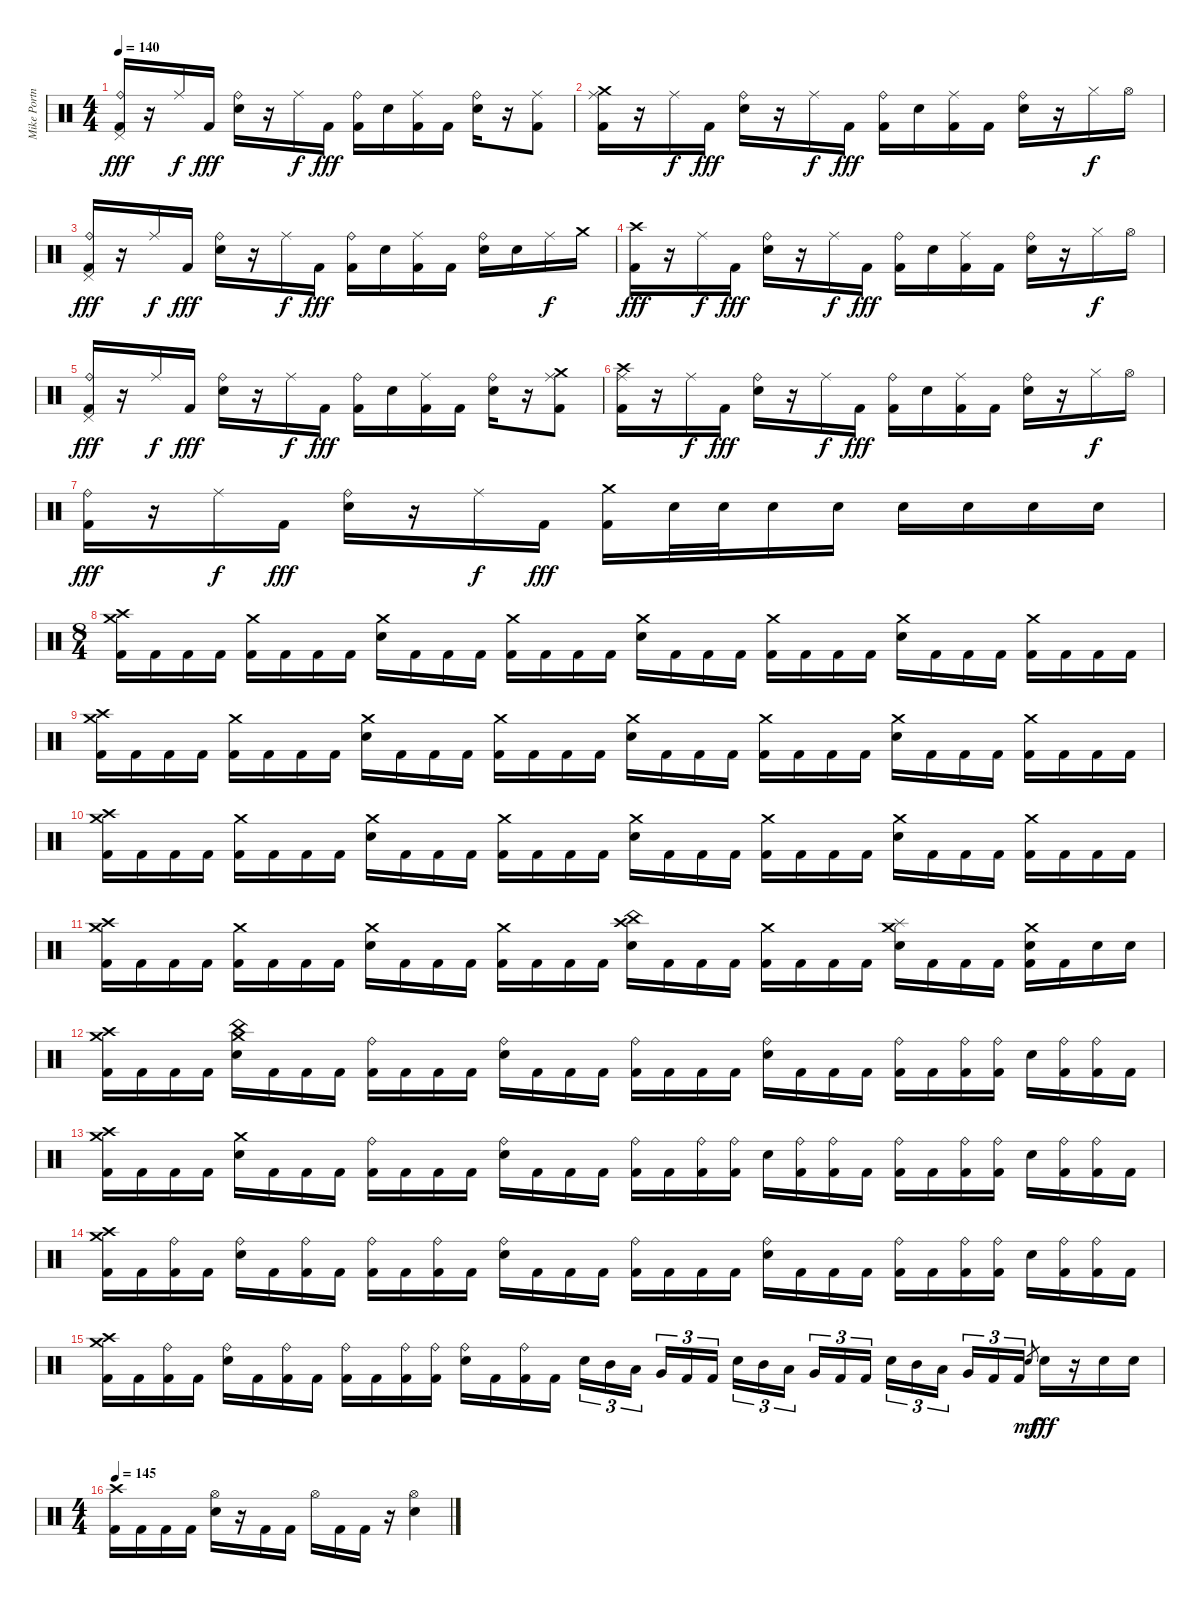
\track ("Mike Portnoy" "Mike Portn") {instrument percussion}
\staff {score}
\articulation defaults
\ts (4 4)
\tempo 140
\clef neutral
\ks c
("Pedal Hi-Hat (hit)" "Ride (bell)" "Kick (hit) 2").16{dy fff} r.16 "Ride (middle)".16{dy f} "Kick (hit) 2".16{dy fff} ("Ride (bell)" "Electric Snare (hit)").16 r.16 "Ride (middle)".16{dy f} "Kick (hit) 2".16{dy fff} ("Ride (bell)" "Kick (hit) 2").16 "Electric Snare (hit)".16 ("Ride (middle)" "Kick (hit) 2").16 "Kick (hit) 2".16 ("Ride (bell)" "Electric Snare (hit)").16 r.16 ("Ride (middle)" "Kick (hit) 2").8 |
("Crash medium (hit)" "Ride (middle)" "Kick (hit) 2").16 r.16 "Ride (middle)".16{dy f} "Kick (hit) 2".16{dy fff} ("Ride (bell)" "Electric Snare (hit)").16 r.16 "Ride (middle)".16{dy f} "Kick (hit) 2".16{dy fff} ("Ride (bell)" "Kick (hit) 2").16 "Electric Snare (hit)".16 ("Ride (middle)" "Kick (hit) 2").16 "Kick (hit) 2".16 ("Ride (bell)" "Electric Snare (hit)").16 r.16 "Hi-Hat (closed)".16{dy f} "Hi-Hat (open)".16 |
("Pedal Hi-Hat (hit)" "Ride (bell)" "Kick (hit) 2").16{dy fff} r.16 "Ride (middle)".16{dy f} "Kick (hit) 2".16{dy fff} ("Ride (bell)" "Electric Snare (hit)").16 r.16 "Ride (middle)".16{dy f} "Kick (hit) 2".16{dy fff} ("Ride (bell)" "Kick (hit) 2").16 "Electric Snare (hit)".16 ("Ride (middle)" "Kick (hit) 2").16 "Kick (hit) 2".16 ("Ride (bell)" "Electric Snare (hit)").16 "Electric Snare (hit)".16 "Ride (middle)".16{dy f} "Crash medium (hit)".16 |
("Crash high (hit)" "Kick (hit) 2").16{dy fff} r.16 "Ride (middle)".16{dy f} "Kick (hit) 2".16{dy fff} ("Ride (bell)" "Electric Snare (hit)").16 r.16 "Ride (middle)".16{dy f} "Kick (hit) 2".16{dy fff} ("Ride (bell)" "Kick (hit) 2").16 "Electric Snare (hit)".16 ("Ride (middle)" "Kick (hit) 2").16 "Kick (hit) 2".16 ("Ride (bell)" "Electric Snare (hit)").16 r.16 "Hi-Hat (closed)".16{dy f} "Hi-Hat (open)".16 |
("Pedal Hi-Hat (hit)" "Ride (bell)" "Kick (hit) 2").16{dy fff} r.16 "Ride (middle)".16{dy f} "Kick (hit) 2".16{dy fff} ("Ride (bell)" "Electric Snare (hit)").16 r.16 "Ride (middle)".16{dy f} "Kick (hit) 2".16{dy fff} ("Ride (bell)" "Kick (hit) 2").16 "Electric Snare (hit)".16 ("Ride (middle)" "Kick (hit) 2").16 "Kick (hit) 2".16 ("Ride (bell)" "Electric Snare (hit)").16 r.16 ("Crash medium (hit)" "Ride (middle)" "Kick (hit) 2").8 |
("Crash high (hit)" "Ride (middle)" "Kick (hit) 2").16 r.16 "Ride (middle)".16{dy f} "Kick (hit) 2".16{dy fff} ("Ride (bell)" "Electric Snare (hit)").16 r.16 "Ride (middle)".16{dy f} "Kick (hit) 2".16{dy fff} ("Ride (bell)" "Kick (hit) 2").16 "Electric Snare (hit)".16 ("Ride (middle)" "Kick (hit) 2").16 "Kick (hit) 2".16 ("Ride (bell)" "Electric Snare (hit)").16 r.16 "Hi-Hat (closed)".16{dy f} "Hi-Hat (open)".16 |
("Ride (bell)" "Kick (hit) 2").16{dy fff} r.16 "Ride (middle)".16{dy f} "Kick (hit) 2".16{dy fff} ("Ride (bell)" "Electric Snare (hit)").16 r.16 "Ride (middle)".16{dy f} "Kick (hit) 2".16{dy fff} ("Crash medium (hit)" "Kick (hit) 2").16 "Electric Snare (hit)".32 "Electric Snare (hit)".32 "Electric Snare (hit)".16 "Electric Snare (hit)".16 "Electric Snare (hit)".16 "Electric Snare (hit)".16 "Electric Snare (hit)".16 "Electric Snare (hit)".16 |
\ts (8 4)
("Crash high (hit)" "Crash medium (hit)" "Kick (hit) 2").16 "Kick (hit) 2".16 "Kick (hit) 2".16 "Kick (hit) 2".16 ("Crash medium (hit)" "Kick (hit) 2").16 "Kick (hit) 2".16 "Kick (hit) 2".16 "Kick (hit) 2".16 ("Crash medium (hit)" "Electric Snare (hit)").16 "Kick (hit) 2".16 "Kick (hit) 2".16 "Kick (hit) 2".16 ("Crash medium (hit)" "Kick (hit) 2").16 "Kick (hit) 2".16 "Kick (hit) 2".16 "Kick (hit) 2".16 ("Crash medium (hit)" "Electric Snare (hit)").16 "Kick (hit) 2".16 "Kick (hit) 2".16 "Kick (hit) 2".16 ("Crash medium (hit)" "Kick (hit) 2").16 "Kick (hit) 2".16 "Kick (hit) 2".16 "Kick (hit) 2".16 ("Crash medium (hit)" "Electric Snare (hit)").16 "Kick (hit) 2".16 "Kick (hit) 2".16 "Kick (hit) 2".16 ("Crash medium (hit)" "Kick (hit) 2").16 "Kick (hit) 2".16 "Kick (hit) 2".16 "Kick (hit) 2".16 |
("Crash high (hit)" "Crash medium (hit)" "Kick (hit) 2").16 "Kick (hit) 2".16 "Kick (hit) 2".16 "Kick (hit) 2".16 ("Crash medium (hit)" "Kick (hit) 2").16 "Kick (hit) 2".16 "Kick (hit) 2".16 "Kick (hit) 2".16 ("Crash medium (hit)" "Electric Snare (hit)").16 "Kick (hit) 2".16 "Kick (hit) 2".16 "Kick (hit) 2".16 ("Crash medium (hit)" "Kick (hit) 2").16 "Kick (hit) 2".16 "Kick (hit) 2".16 "Kick (hit) 2".16 ("Crash medium (hit)" "Electric Snare (hit)").16 "Kick (hit) 2".16 "Kick (hit) 2".16 "Kick (hit) 2".16 ("Crash medium (hit)" "Kick (hit) 2").16 "Kick (hit) 2".16 "Kick (hit) 2".16 "Kick (hit) 2".16 ("Crash medium (hit)" "Electric Snare (hit)").16 "Kick (hit) 2".16 "Kick (hit) 2".16 "Kick (hit) 2".16 ("Crash medium (hit)" "Kick (hit) 2").16 "Kick (hit) 2".16 "Kick (hit) 2".16 "Kick (hit) 2".16 |
("Crash high (hit)" "Crash medium (hit)" "Kick (hit) 2").16 "Kick (hit) 2".16 "Kick (hit) 2".16 "Kick (hit) 2".16 ("Crash medium (hit)" "Kick (hit) 2").16 "Kick (hit) 2".16 "Kick (hit) 2".16 "Kick (hit) 2".16 ("Crash medium (hit)" "Electric Snare (hit)").16 "Kick (hit) 2".16 "Kick (hit) 2".16 "Kick (hit) 2".16 ("Crash medium (hit)" "Kick (hit) 2").16 "Kick (hit) 2".16 "Kick (hit) 2".16 "Kick (hit) 2".16 ("Crash medium (hit)" "Electric Snare (hit)").16 "Kick (hit) 2".16 "Kick (hit) 2".16 "Kick (hit) 2".16 ("Crash medium (hit)" "Kick (hit) 2").16 "Kick (hit) 2".16 "Kick (hit) 2".16 "Kick (hit) 2".16 ("Crash medium (hit)" "Electric Snare (hit)").16 "Kick (hit) 2".16 "Kick (hit) 2".16 "Kick (hit) 2".16 ("Crash medium (hit)" "Kick (hit) 2").16 "Kick (hit) 2".16 "Kick (hit) 2".16 "Kick (hit) 2".16 |
("Crash high (hit)" "Crash medium (hit)" "Kick (hit) 2").16 "Kick (hit) 2".16 "Kick (hit) 2".16 "Kick (hit) 2".16 ("Crash medium (hit)" "Kick (hit) 2").16 "Kick (hit) 2".16 "Kick (hit) 2".16 "Kick (hit) 2".16 ("Crash medium (hit)" "Electric Snare (hit)").16 "Kick (hit) 2".16 "Kick (hit) 2".16 "Kick (hit) 2".16 ("Crash medium (hit)" "Kick (hit) 2").16 "Kick (hit) 2".16 "Kick (hit) 2".16 "Kick (hit) 2".16 ("Crash high (hit)" "China (hit)" "Electric Snare (hit)").16 "Kick (hit) 2".16 "Kick (hit) 2".16 "Kick (hit) 2".16 ("Crash medium (hit)" "Kick (hit) 2").16 "Kick (hit) 2".16 "Kick (hit) 2".16 "Kick (hit) 2".16 ("Crash medium (hit)" "Splash (hit)" "Electric Snare (hit)").16 "Kick (hit) 2".16 "Kick (hit) 2".16 "Kick (hit) 2".16 ("Crash medium (hit)" "Electric Snare (hit)" "Kick (hit) 2").16 "Kick (hit) 2".16 "Electric Snare (hit)".16 "Electric Snare (hit)".16 |
("Crash high (hit)" "Crash medium (hit)" "Kick (hit) 2").16 "Kick (hit) 2".16 "Kick (hit) 2".16 "Kick (hit) 2".16 ("Crash medium (hit)" "China (hit)" "Electric Snare (hit)").16 "Kick (hit) 2".16 "Kick (hit) 2".16 "Kick (hit) 2".16 ("Ride (bell)" "Kick (hit) 2").16 "Kick (hit) 2".16 "Kick (hit) 2".16 "Kick (hit) 2".16 ("Ride (bell)" "Electric Snare (hit)").16 "Kick (hit) 2".16 "Kick (hit) 2".16 "Kick (hit) 2".16 ("Ride (bell)" "Kick (hit) 2").16 "Kick (hit) 2".16 "Kick (hit) 2".16 "Kick (hit) 2".16 ("Ride (bell)" "Electric Snare (hit)").16 "Kick (hit) 2".16 "Kick (hit) 2".16 "Kick (hit) 2".16 ("Ride (bell)" "Kick (hit) 2").16 "Kick (hit) 2".16 ("Ride (bell)" "Kick (hit) 2").16 ("Ride (bell)" "Kick (hit) 2").16 "Electric Snare (hit)".16 ("Ride (bell)" "Kick (hit) 2").16 ("Ride (bell)" "Kick (hit) 2").16 "Kick (hit) 2".16 |
("Crash high (hit)" "Crash medium (hit)" "Kick (hit) 2").16 "Kick (hit) 2".16 "Kick (hit) 2".16 "Kick (hit) 2".16 ("Crash medium (hit)" "Electric Snare (hit)").16 "Kick (hit) 2".16 "Kick (hit) 2".16 "Kick (hit) 2".16 ("Ride (bell)" "Kick (hit) 2").16 "Kick (hit) 2".16 "Kick (hit) 2".16 "Kick (hit) 2".16 ("Ride (bell)" "Electric Snare (hit)").16 "Kick (hit) 2".16 "Kick (hit) 2".16 "Kick (hit) 2".16 ("Ride (bell)" "Kick (hit) 2").16 "Kick (hit) 2".16 ("Ride (bell)" "Kick (hit) 2").16 ("Ride (bell)" "Kick (hit) 2").16 "Electric Snare (hit)".16 ("Ride (bell)" "Kick (hit) 2").16 ("Ride (bell)" "Kick (hit) 2").16 "Kick (hit) 2".16 ("Ride (bell)" "Kick (hit) 2").16 "Kick (hit) 2".16 ("Ride (bell)" "Kick (hit) 2").16 ("Ride (bell)" "Kick (hit) 2").16 "Electric Snare (hit)".16 ("Ride (bell)" "Kick (hit) 2").16 ("Ride (bell)" "Kick (hit) 2").16 "Kick (hit) 2".16 |
("Crash high (hit)" "Crash medium (hit)" "Kick (hit) 2").16 "Kick (hit) 2".16 ("Ride (bell)" "Kick (hit) 2").16 "Kick (hit) 2".16 ("Ride (bell)" "Electric Snare (hit)").16 "Kick (hit) 2".16 ("Ride (bell)" "Kick (hit) 2").16 "Kick (hit) 2".16 ("Ride (bell)" "Kick (hit) 2").16 "Kick (hit) 2".16 ("Ride (bell)" "Kick (hit) 2").16 "Kick (hit) 2".16 ("Ride (bell)" "Electric Snare (hit)").16 "Kick (hit) 2".16 "Kick (hit) 2".16 "Kick (hit) 2".16 ("Ride (bell)" "Kick (hit) 2").16 "Kick (hit) 2".16 "Kick (hit) 2".16 "Kick (hit) 2".16 ("Ride (bell)" "Electric Snare (hit)").16 "Kick (hit) 2".16 "Kick (hit) 2".16 "Kick (hit) 2".16 ("Ride (bell)" "Kick (hit) 2").16 "Kick (hit) 2".16 ("Ride (bell)" "Kick (hit) 2").16 ("Ride (bell)" "Kick (hit) 2").16 "Electric Snare (hit)".16 ("Ride (bell)" "Kick (hit) 2").16 ("Ride (bell)" "Kick (hit) 2").16 "Kick (hit) 2".16 |
("Crash high (hit)" "Crash medium (hit)" "Kick (hit) 2").16 "Kick (hit) 2".16 ("Ride (bell)" "Kick (hit) 2").16 "Kick (hit) 2".16 ("Ride (bell)" "Electric Snare (hit)").16 "Kick (hit) 2".16 ("Ride (bell)" "Kick (hit) 2").16 "Kick (hit) 2".16 ("Ride (bell)" "Kick (hit) 2").16 "Kick (hit) 2".16 ("Ride (bell)" "Kick (hit) 2").16 ("Ride (bell)" "Kick (hit) 2").16 ("Ride (bell)" "Electric Snare (hit)").16 "Kick (hit) 2".16 ("Ride (bell)" "Kick (hit) 2").16 "Kick (hit) 2".16 "Electric Snare (hit)".16{tu (3 2)} "Mid Tom (hit)".16{tu (3 2)} "Low Tom (hit)".16{tu (3 2) beam splitsecondary} "Very Low Tom (hit)".16{tu (3 2)} "Kick (hit) 2".16{tu (3 2)} "Kick (hit) 2".16{tu (3 2)} "Electric Snare (hit)".16{tu (3 2)} "Mid Tom (hit)".16{tu (3 2)} "Low Tom (hit)".16{tu (3 2) beam splitsecondary} "Very Low Tom (hit)".16{tu (3 2)} "Kick (hit) 2".16{tu (3 2)} "Kick (hit) 2".16{tu (3 2)} "Electric Snare (hit)".16{tu (3 2)} "Mid Tom (hit)".16{tu (3 2)} "Low Tom (hit)".16{tu (3 2) beam splitsecondary} "Very Low Tom (hit)".16{tu (3 2)} "Kick (hit) 2".16{tu (3 2)} "Kick (hit) 2".16{tu (3 2)} "Electric Snare (hit)".8{gr dy mf} "Electric Snare (hit)".16{dy fff} r.16 "Electric Snare (hit)".16 "Electric Snare (hit)".16 |
\ts (4 4)
\tempo 145
("Crash high (hit)" "Kick (hit) 2").16 "Kick (hit) 2".16 "Kick (hit) 2".16 "Kick (hit) 2".16 ("Hi-Hat (open)" "Electric Snare (hit)").16 r.16 "Kick (hit) 2".16 "Kick (hit) 2".16 "Hi-Hat (open)".16 "Kick (hit) 2".16 "Kick (hit) 2".16 r.16 ("Hi-Hat (open)" "Electric Snare (hit)").4
